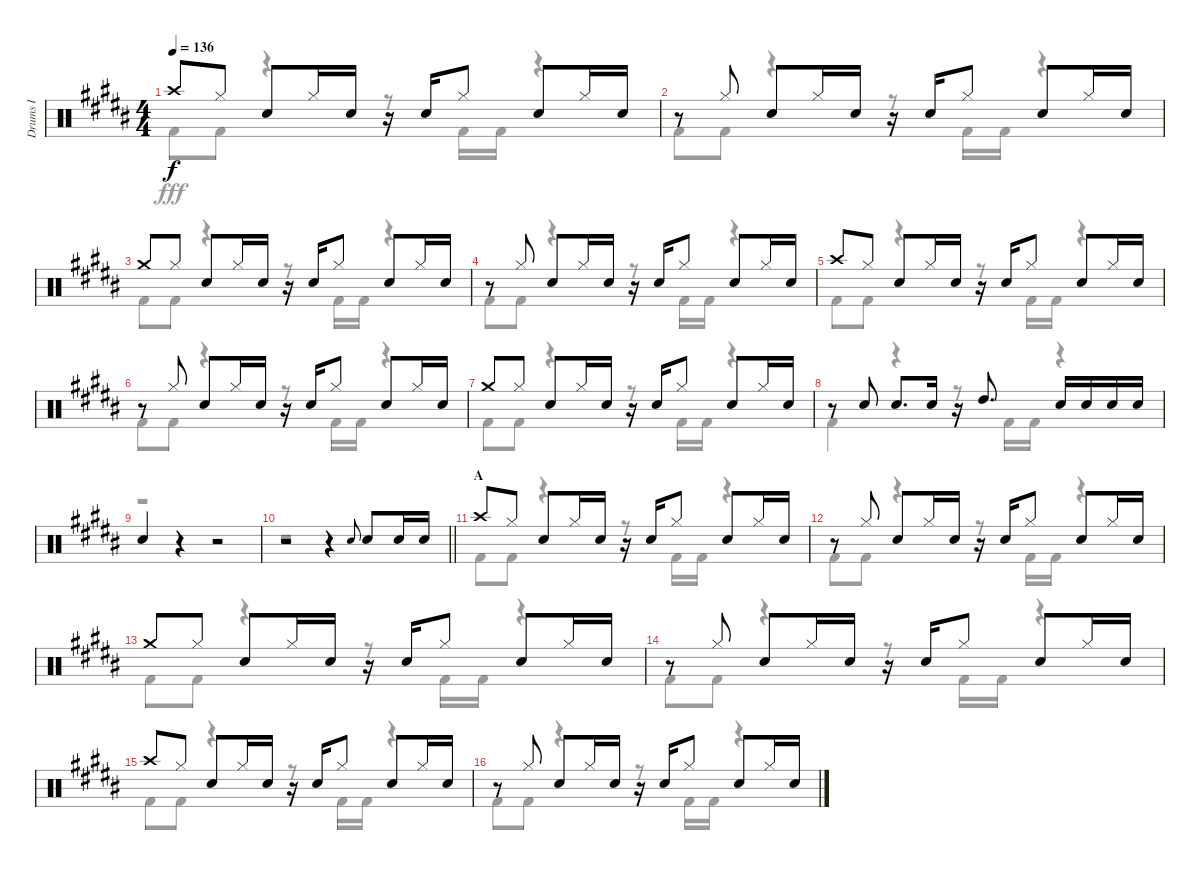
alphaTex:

\track ("Drums I" "Drums I") {instrument percussion}
\staff {score}
\articulation defaults
\voice
\ts (4 4)
\tempo 136
\clef neutral
\ks b "Crash high (hit)".8{dy f} "Hi-Hat (closed)".8 "Snare (hit) 2".8 "Hi-Hat (closed)".16 "Snare (hit) 2".16
r.16 "Snare (hit) 2".16 "Hi-Hat (closed)".8 "Snare (hit) 2".8 "Hi-Hat (closed)".16 "Snare (hit) 2".16 |
r.8 "Hi-Hat (closed)".8 "Snare (hit) 2".8 "Hi-Hat (closed)".16 "Snare (hit) 2".16 r.16 "Snare (hit) 2".16 "Hi-Hat (closed)".8 "Snare (hit) 2".8 "Hi-Hat (closed)".16 "Snare (hit) 2".16 |
"Crash medium (hit)".8 "Hi-Hat (closed)".8 "Snare (hit) 2".8 "Hi-Hat (closed)".16 "Snare (hit) 2".16 r.16 "Snare (hit) 2".16 "Hi-Hat (closed)".8 "Snare (hit) 2".8 "Hi-Hat (closed)".16 "Snare (hit) 2".16 |
r.8 "Hi-Hat (closed)".8 "Snare (hit) 2".8 "Hi-Hat (closed)".16 "Snare (hit) 2".16 r.16 "Snare (hit) 2".16 "Hi-Hat (closed)".8 "Snare (hit) 2".8 "Hi-Hat (closed)".16 "Snare (hit) 2".16 |
"Crash high (hit)".8 "Hi-Hat (closed)".8 "Snare (hit) 2".8 "Hi-Hat (closed)".16 "Snare (hit) 2".16 r.16 "Snare (hit) 2".16 "Hi-Hat (closed)".8 "Snare (hit) 2".8 "Hi-Hat (closed)".16 "Snare (hit) 2".16 |
r.8 "Hi-Hat (closed)".8 "Snare (hit) 2".8 "Hi-Hat (closed)".16 "Snare (hit) 2".16 r.16 "Snare (hit) 2".16 "Hi-Hat (closed)".8 "Snare (hit) 2".8 "Hi-Hat (closed)".16 "Snare (hit) 2".16 |
"Crash medium (hit)".8 "Hi-Hat (closed)".8 "Snare (hit) 2".8 "Hi-Hat (closed)".16 "Snare (hit) 2".16 r.16 "Snare (hit) 2".16 "Hi-Hat (closed)".8 "Snare (hit) 2".8 "Hi-Hat (closed)".16 "Snare (hit) 2".16 |
r.8 "Snare (hit) 2".8 "Snare (hit) 2".8{d} "Snare (hit) 2".16 r.16 "High Tom (hit)".8{d} "Snare (hit) 2".16 "Snare (hit) 2".16 "Snare (hit) 2".16 "Snare (hit) 2".16 |
"Snare (hit) 2".4 r.4 r.2 |
\barLineRight lightlight
r.2 r.4 "Snare (hit) 2".8{gr onbeat} "Snare (hit) 2".8 "Snare (hit) 2".16 "Snare (hit) 2".16 |
\section ("" "A")
"Crash high (hit)".8 "Hi-Hat (closed)".8 "Snare (hit) 2".8 "Hi-Hat (closed)".16 "Snare (hit) 2".16 r.16 "Snare (hit) 2".16 "Hi-Hat (closed)".8 "Snare (hit) 2".8 "Hi-Hat (closed)".16 "Snare (hit) 2".16 |
r.8 "Hi-Hat (closed)".8 "Snare (hit) 2".8 "Hi-Hat (closed)".16 "Snare (hit) 2".16 r.16 "Snare (hit) 2".16 "Hi-Hat (closed)".8 "Snare (hit) 2".8 "Hi-Hat (closed)".16 "Snare (hit) 2".16 |
"Crash medium (hit)".8 "Hi-Hat (closed)".8 "Snare (hit) 2".8 "Hi-Hat (closed)".16 "Snare (hit) 2".16 r.16 "Snare (hit) 2".16 "Hi-Hat (closed)".8 "Snare (hit) 2".8 "Hi-Hat (closed)".16 "Snare (hit) 2".16 |
r.8 "Hi-Hat (closed)".8 "Snare (hit) 2".8 "Hi-Hat (closed)".16 "Snare (hit) 2".16 r.16 "Snare (hit) 2".16 "Hi-Hat (closed)".8 "Snare (hit) 2".8 "Hi-Hat (closed)".16 "Snare (hit) 2".16 |
"Crash high (hit)".8 "Hi-Hat (closed)".8 "Snare (hit) 2".8 "Hi-Hat (closed)".16 "Snare (hit) 2".16 r.16 "Snare (hit) 2".16 "Hi-Hat (closed)".8 "Snare (hit) 2".8 "Hi-Hat (closed)".16 "Snare (hit) 2".16 |
r.8 "Hi-Hat (closed)".8 "Snare (hit) 2".8 "Hi-Hat (closed)".16 "Snare (hit) 2".16 r.16 "Snare (hit) 2".16 "Hi-Hat (closed)".8 "Snare (hit) 2".8 "Hi-Hat (closed)".16 "Snare (hit) 2".16
\voice
\clef neutral
\ottava regular
\simile none
\ks b "Kick (hit) 2".8{dy fff} "Kick (hit) 2".8
r.4 r.8 "Kick (hit) 2".16 "Kick (hit) 2".16 r.4 |
"Kick (hit) 2".8 "Kick (hit) 2".8 r.4 r.8 "Kick (hit) 2".16 "Kick (hit) 2".16 r.4 |
"Kick (hit) 2".8 "Kick (hit) 2".8 r.4 r.8 "Kick (hit) 2".16 "Kick (hit) 2".16 r.4 |
"Kick (hit) 2".8 "Kick (hit) 2".8 r.4 r.8 "Kick (hit) 2".16 "Kick (hit) 2".16 r.4 |
"Kick (hit) 2".8 "Kick (hit) 2".8 r.4 r.8 "Kick (hit) 2".16 "Kick (hit) 2".16 r.4 |
"Kick (hit) 2".8 "Kick (hit) 2".8 r.4 r.8 "Kick (hit) 2".16 "Kick (hit) 2".16 r.4 |
"Kick (hit) 2".8 "Kick (hit) 2".8 r.4 r.8 "Kick (hit) 2".16 "Kick (hit) 2".16 r.4 |
"Kick (hit) 2".4 r.4 r.8 "Kick (hit) 2".16 "Kick (hit) 2".16 r.4 |
r.1 |
\barLineRight lightlight
r.1 |
"Kick (hit) 2".8 "Kick (hit) 2".8 r.4 r.8 "Kick (hit) 2".16 "Kick (hit) 2".16 r.4 |
"Kick (hit) 2".8 "Kick (hit) 2".8 r.4 r.8 "Kick (hit) 2".16 "Kick (hit) 2".16 r.4 |
"Kick (hit) 2".8 "Kick (hit) 2".8 r.4 r.8 "Kick (hit) 2".16 "Kick (hit) 2".16 r.4 |
"Kick (hit) 2".8 "Kick (hit) 2".8 r.4 r.8 "Kick (hit) 2".16 "Kick (hit) 2".16 r.4 |
"Kick (hit) 2".8 "Kick (hit) 2".8 r.4 r.8 "Kick (hit) 2".16 "Kick (hit) 2".16 r.4 |
"Kick (hit) 2".8 "Kick (hit) 2".8 r.4 r.8 "Kick (hit) 2".16 "Kick (hit) 2".16 r.4
